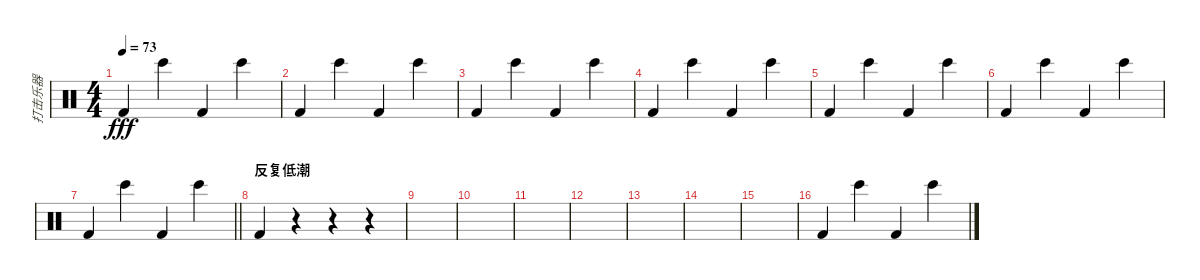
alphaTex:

\track ("打击乐器" "打击乐器") {instrument percussion}
\staff {score}
\articulation defaults
\ts (4 4)
\tempo 73
\clef neutral
\ks c "Kick (hit) 2".4{dy fff} "Bongo High (hit)".4 "Kick (hit) 2".4 "Bongo High (hit)".4
|
"Kick (hit) 2".4 "Bongo High (hit)".4 "Kick (hit) 2".4 "Bongo High (hit)".4 |
"Kick (hit) 2".4 "Bongo High (hit)".4 "Kick (hit) 2".4 "Bongo High (hit)".4 |
"Kick (hit) 2".4 "Bongo High (hit)".4 "Kick (hit) 2".4 "Bongo High (hit)".4 |
"Kick (hit) 2".4 "Bongo High (hit)".4 "Kick (hit) 2".4 "Bongo High (hit)".4 |
"Kick (hit) 2".4 "Bongo High (hit)".4 "Kick (hit) 2".4 "Bongo High (hit)".4 |
\barLineRight lightlight "Kick (hit) 2".4 "Bongo High (hit)".4 "Kick (hit) 2".4 "Bongo High (hit)".4
|
\section ("" "反复低潮")
"Kick (hit) 2".4 r.4 r.4 r.4 |
|
|
|
|
|
|
|
"Kick (hit) 2".4 "Bongo High (hit)".4 "Kick (hit) 2".4 "Bongo High (hit)".4
